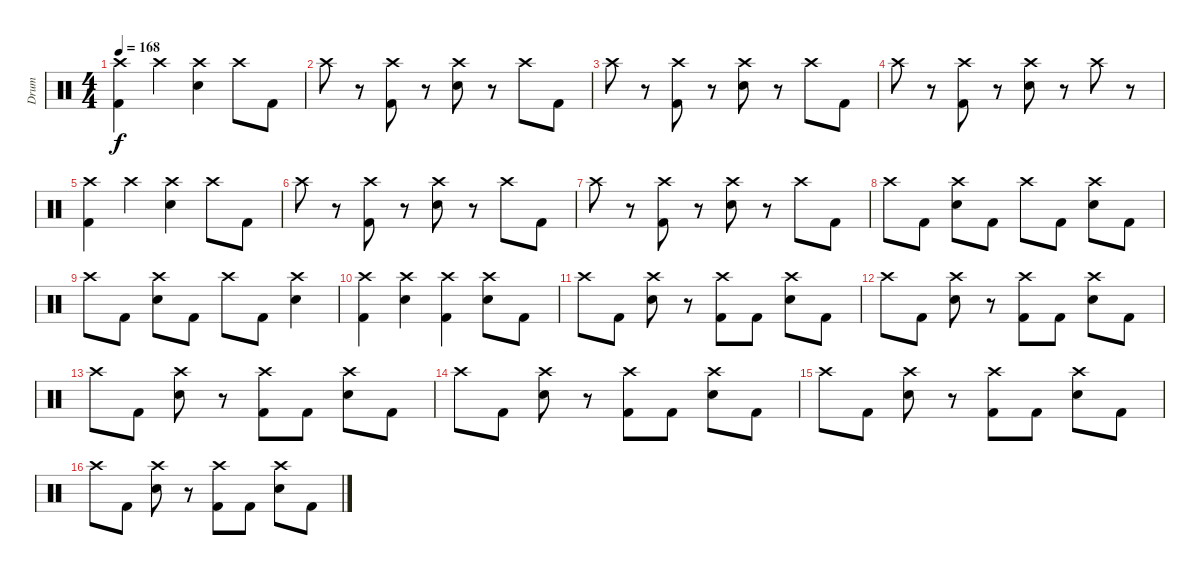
\track ("Drum" "Drum") {instrument percussion}
\staff {score}
\articulation defaults
\ts (4 4)
\tempo 168
\clef neutral
\ks c
("Crash high (hit)" "Kick (hit) 2").4{dy f} "Crash high (hit)".4 ("Crash high (hit)" "Electric Snare (hit)").4 "Crash high (hit)".8 "Kick (hit) 2".8 |
"Crash high (hit)".8 r.8 ("Crash high (hit)" "Kick (hit) 2").8 r.8 ("Crash high (hit)" "Electric Snare (hit)").8 r.8 "Crash high (hit)".8 "Kick (hit) 2".8 |
"Crash high (hit)".8 r.8 ("Crash high (hit)" "Kick (hit) 2").8 r.8 ("Electric Snare (hit)" "Crash high (hit)").8 r.8 "Crash high (hit)".8 "Kick (hit) 2".8 |
"Crash high (hit)".8 r.8 ("Crash high (hit)" "Kick (hit) 2").8 r.8 ("Crash high (hit)" "Electric Snare (hit)").8 r.8 "Crash high (hit)".8 r.8 |
("Crash high (hit)" "Kick (hit) 2").4 "Crash high (hit)".4 ("Crash high (hit)" "Electric Snare (hit)").4 "Crash high (hit)".8 "Kick (hit) 2".8 |
"Crash high (hit)".8 r.8 ("Crash high (hit)" "Kick (hit) 2").8 r.8 ("Crash high (hit)" "Electric Snare (hit)").8 r.8 "Crash high (hit)".8 "Kick (hit) 2".8 |
"Crash high (hit)".8 r.8 ("Crash high (hit)" "Kick (hit) 2").8 r.8 ("Electric Snare (hit)" "Crash high (hit)").8 r.8 "Crash high (hit)".8 "Kick (hit) 2".8 |
"Crash high (hit)".8 "Kick (hit) 2".8 ("Crash high (hit)" "Electric Snare (hit)").8 "Kick (hit) 2".8 "Crash high (hit)".8 "Kick (hit) 2".8 ("Crash high (hit)" "Electric Snare (hit)").8 "Kick (hit) 2".8 |
"Crash high (hit)".8 "Kick (hit) 2".8 ("Crash high (hit)" "Electric Snare (hit)").8 "Kick (hit) 2".8 "Crash high (hit)".8 "Kick (hit) 2".8 ("Crash high (hit)" "Electric Snare (hit)").4 |
("Crash high (hit)" "Kick (hit) 2").4 ("Crash high (hit)" "Electric Snare (hit)").4 ("Crash high (hit)" "Kick (hit) 2").4 ("Crash high (hit)" "Electric Snare (hit)").8 "Kick (hit) 2".8 |
"Crash high (hit)".8 "Kick (hit) 2".8 ("Crash high (hit)" "Electric Snare (hit)").8 r.8 ("Crash high (hit)" "Kick (hit) 2").8 "Kick (hit) 2".8 ("Crash high (hit)" "Electric Snare (hit)").8 "Kick (hit) 2".8 |
"Crash high (hit)".8 "Kick (hit) 2".8 ("Crash high (hit)" "Electric Snare (hit)").8 r.8 ("Crash high (hit)" "Kick (hit) 2").8 "Kick (hit) 2".8 ("Crash high (hit)" "Electric Snare (hit)").8 "Kick (hit) 2".8 |
"Crash high (hit)".8 "Kick (hit) 2".8 ("Crash high (hit)" "Electric Snare (hit)").8 r.8 ("Crash high (hit)" "Kick (hit) 2").8 "Kick (hit) 2".8 ("Crash high (hit)" "Electric Snare (hit)").8 "Kick (hit) 2".8 |
"Crash high (hit)".8 "Kick (hit) 2".8 ("Crash high (hit)" "Electric Snare (hit)").8 r.8 ("Crash high (hit)" "Kick (hit) 2").8 "Kick (hit) 2".8 ("Crash high (hit)" "Electric Snare (hit)").8 "Kick (hit) 2".8 |
"Crash high (hit)".8 "Kick (hit) 2".8 ("Crash high (hit)" "Electric Snare (hit)").8 r.8 ("Crash high (hit)" "Kick (hit) 2").8 "Kick (hit) 2".8 ("Crash high (hit)" "Electric Snare (hit)").8 "Kick (hit) 2".8 |
"Crash high (hit)".8 "Kick (hit) 2".8 ("Crash high (hit)" "Electric Snare (hit)").8 r.8 ("Crash high (hit)" "Kick (hit) 2").8 "Kick (hit) 2".8 ("Crash high (hit)" "Electric Snare (hit)").8 "Kick (hit) 2".8
